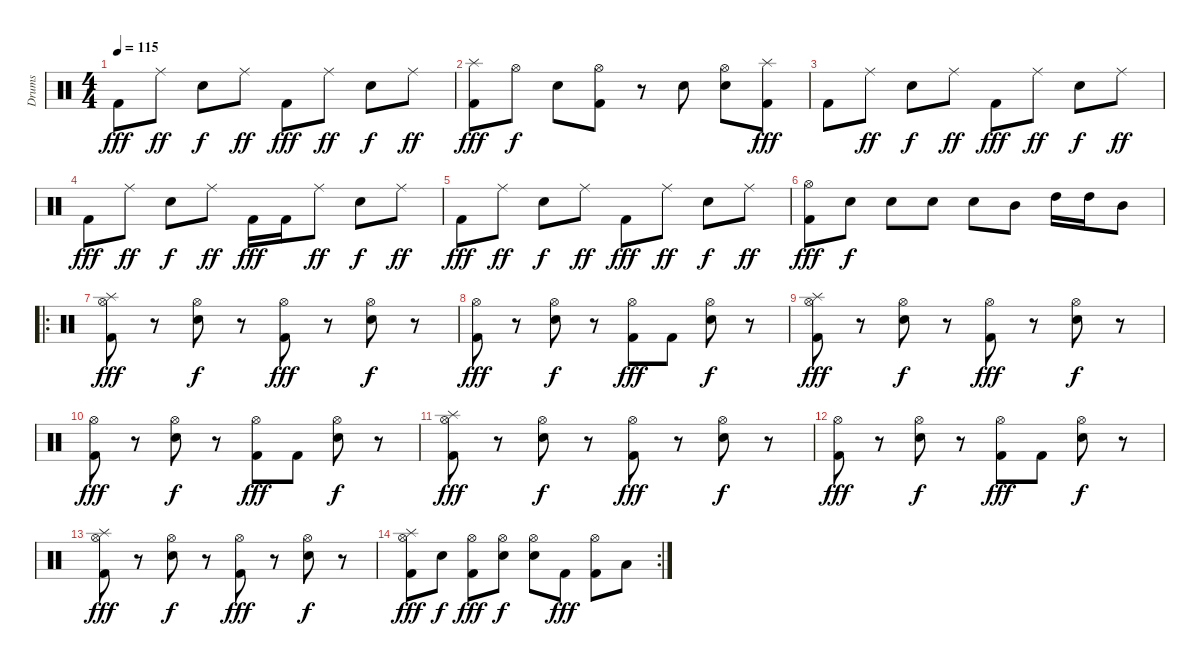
\track ("Drums" "Drums") {instrument percussion}
\staff {score}
\articulation defaults
\ts (4 4)
\tempo 115
\clef neutral
\ks c "Kick (hit) 2".8{dy fff} "Ride (middle)".8{dy ff} "Snare (hit) 2".8{dy f} "Ride (middle)".8{dy ff} "Kick (hit) 2".8{dy fff} "Ride (middle)".8{dy ff} "Snare (hit) 2".8{dy f} "Ride (middle)".8{dy ff}
|
("Splash (hit)" "Kick (hit) 2").8{dy fff} "Hi-Hat (open)".8{dy f} "Snare (hit) 2".8 ("Hi-Hat (open)" "Kick (hit) 2").8 r.8 "Snare (hit) 2".8 ("Hi-Hat (open)" "Snare (hit) 2").8 ("Splash (hit)" "Kick (hit) 2").8{dy fff} |
"Kick (hit) 2".8 "Ride (middle)".8{dy ff} "Snare (hit) 2".8{dy f} "Ride (middle)".8{dy ff} "Kick (hit) 2".8{dy fff} "Ride (middle)".8{dy ff} "Snare (hit) 2".8{dy f} "Ride (middle)".8{dy ff} |
"Kick (hit) 2".8{dy fff} "Ride (middle)".8{dy ff} "Snare (hit) 2".8{dy f} "Ride (middle)".8{dy ff} "Kick (hit) 2".16{dy fff} "Kick (hit) 2".16 "Ride (middle)".8{dy ff} "Snare (hit) 2".8{dy f} "Ride (middle)".8{dy ff} |
"Kick (hit) 2".8{dy fff} "Ride (middle)".8{dy ff} "Snare (hit) 2".8{dy f} "Ride (middle)".8{dy ff} "Kick (hit) 2".8{dy fff} "Ride (middle)".8{dy ff} "Snare (hit) 2".8{dy f} "Ride (middle)".8{dy ff} |
("Hi-Hat (open)" "Kick (hit) 2").8{dy fff} "Snare (hit) 2".8{dy f} "Snare (hit) 2".8 "Snare (hit) 2".8 "Snare (hit) 2".8 "Mid Tom (hit)".8 "High Tom (hit)".16 "High Tom (hit)".16 "Mid Tom (hit)".8 |
\ro
("Hi-Hat (open)" "Splash (hit)" "Kick (hit) 2").8{dy fff} r.8 ("Hi-Hat (open)" "Snare (hit) 2").8{dy f} r.8 ("Hi-Hat (open)" "Kick (hit) 2").8{dy fff} r.8 ("Hi-Hat (open)" "Snare (hit) 2").8{dy f} r.8 |
("Hi-Hat (open)" "Kick (hit) 2").8{dy fff} r.8 ("Hi-Hat (open)" "Snare (hit) 2").8{dy f} r.8 ("Hi-Hat (open)" "Kick (hit) 2").8{dy fff} "Kick (hit) 2".8 ("Hi-Hat (open)" "Snare (hit) 2").8{dy f} r.8 |
("Hi-Hat (open)" "Splash (hit)" "Kick (hit) 2").8{dy fff} r.8 ("Hi-Hat (open)" "Snare (hit) 2").8{dy f} r.8 ("Hi-Hat (open)" "Kick (hit) 2").8{dy fff} r.8 ("Hi-Hat (open)" "Snare (hit) 2").8{dy f} r.8 |
("Hi-Hat (open)" "Kick (hit) 2").8{dy fff} r.8 ("Hi-Hat (open)" "Snare (hit) 2").8{dy f} r.8 ("Hi-Hat (open)" "Kick (hit) 2").8{dy fff} "Kick (hit) 2".8 ("Hi-Hat (open)" "Snare (hit) 2").8{dy f} r.8 |
("Hi-Hat (open)" "Splash (hit)" "Kick (hit) 2").8{dy fff} r.8 ("Hi-Hat (open)" "Snare (hit) 2").8{dy f} r.8 ("Hi-Hat (open)" "Kick (hit) 2").8{dy fff} r.8 ("Hi-Hat (open)" "Snare (hit) 2").8{dy f} r.8 |
("Hi-Hat (open)" "Kick (hit) 2").8{dy fff} r.8 ("Hi-Hat (open)" "Snare (hit) 2").8{dy f} r.8 ("Hi-Hat (open)" "Kick (hit) 2").8{dy fff} "Kick (hit) 2".8 ("Hi-Hat (open)" "Snare (hit) 2").8{dy f} r.8 |
("Hi-Hat (open)" "Splash (hit)" "Kick (hit) 2").8{dy fff} r.8 ("Hi-Hat (open)" "Snare (hit) 2").8{dy f} r.8 ("Hi-Hat (open)" "Kick (hit) 2").8{dy fff} r.8 ("Hi-Hat (open)" "Snare (hit) 2").8{dy f} r.8 |
\rc 2
("Hi-Hat (open)" "Splash (hit)" "Kick (hit) 2").8{dy fff} "Snare (hit) 2".8{dy f} ("Hi-Hat (open)" "Kick (hit) 2").8{dy fff} ("Hi-Hat (open)" "Snare (hit) 2").8{dy f} ("Hi-Hat (open)" "Snare (hit) 2").8 "Kick (hit) 2".8{dy fff} ("Hi-Hat (open)" "Kick (hit) 2").8 "Low Tom (hit)".8
